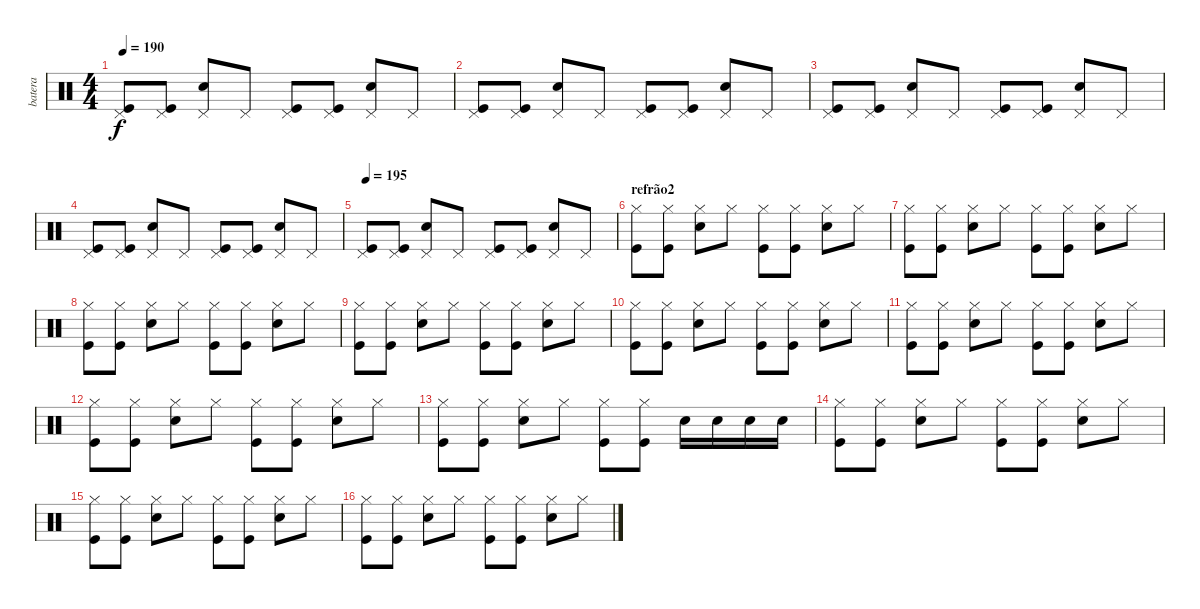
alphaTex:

\track ("batera" "batera") {instrument percussion}
\staff {score}
\articulation defaults
\ts (4 4)
\tempo 190
\clef neutral
\ks c
("Pedal Hi-Hat (hit)" "Kick (hit)").8{dy f} ("Pedal Hi-Hat (hit)" "Kick (hit)").8 ("Pedal Hi-Hat (hit)" "Snare (hit) 2").8 "Pedal Hi-Hat (hit)".8 ("Pedal Hi-Hat (hit)" "Kick (hit)").8 ("Pedal Hi-Hat (hit)" "Kick (hit)").8 ("Pedal Hi-Hat (hit)" "Snare (hit) 2").8 "Pedal Hi-Hat (hit)".8 |
("Pedal Hi-Hat (hit)" "Kick (hit)").8 ("Pedal Hi-Hat (hit)" "Kick (hit)").8 ("Pedal Hi-Hat (hit)" "Snare (hit) 2").8 "Pedal Hi-Hat (hit)".8 ("Pedal Hi-Hat (hit)" "Kick (hit)").8 ("Pedal Hi-Hat (hit)" "Kick (hit)").8 ("Pedal Hi-Hat (hit)" "Snare (hit) 2").8 "Pedal Hi-Hat (hit)".8 |
("Pedal Hi-Hat (hit)" "Kick (hit)").8 ("Pedal Hi-Hat (hit)" "Kick (hit)").8 ("Pedal Hi-Hat (hit)" "Snare (hit) 2").8 "Pedal Hi-Hat (hit)".8 ("Pedal Hi-Hat (hit)" "Kick (hit)").8 ("Pedal Hi-Hat (hit)" "Kick (hit)").8 ("Pedal Hi-Hat (hit)" "Snare (hit) 2").8 "Pedal Hi-Hat (hit)".8 |
("Pedal Hi-Hat (hit)" "Kick (hit)").8 ("Pedal Hi-Hat (hit)" "Kick (hit)").8 ("Pedal Hi-Hat (hit)" "Snare (hit) 2").8 "Pedal Hi-Hat (hit)".8 ("Pedal Hi-Hat (hit)" "Kick (hit)").8 ("Pedal Hi-Hat (hit)" "Kick (hit)").8 ("Pedal Hi-Hat (hit)" "Snare (hit) 2").8 "Pedal Hi-Hat (hit)".8 |
\tempo 195
("Pedal Hi-Hat (hit)" "Kick (hit)").8 ("Pedal Hi-Hat (hit)" "Kick (hit)").8 ("Pedal Hi-Hat (hit)" "Snare (hit) 2").8 "Pedal Hi-Hat (hit)".8 ("Pedal Hi-Hat (hit)" "Kick (hit)").8 ("Pedal Hi-Hat (hit)" "Kick (hit)").8 ("Pedal Hi-Hat (hit)" "Snare (hit) 2").8 "Pedal Hi-Hat (hit)".8 |
\section ("" "refrão2")
("Hi-Hat (closed)" "Kick (hit)").8 ("Hi-Hat (closed)" "Kick (hit)").8 ("Hi-Hat (closed)" "Snare (hit) 2").8 "Hi-Hat (closed)".8 ("Hi-Hat (closed)" "Kick (hit)").8 ("Hi-Hat (closed)" "Kick (hit)").8 ("Hi-Hat (closed)" "Snare (hit) 2").8 "Hi-Hat (closed)".8 |
("Hi-Hat (closed)" "Kick (hit)").8 ("Hi-Hat (closed)" "Kick (hit)").8 ("Hi-Hat (closed)" "Snare (hit) 2").8 "Hi-Hat (closed)".8 ("Hi-Hat (closed)" "Kick (hit)").8 ("Hi-Hat (closed)" "Kick (hit)").8 ("Hi-Hat (closed)" "Snare (hit) 2").8 "Hi-Hat (closed)".8 |
("Hi-Hat (closed)" "Kick (hit)").8 ("Hi-Hat (closed)" "Kick (hit)").8 ("Hi-Hat (closed)" "Snare (hit) 2").8 "Hi-Hat (closed)".8 ("Hi-Hat (closed)" "Kick (hit)").8 ("Hi-Hat (closed)" "Kick (hit)").8 ("Hi-Hat (closed)" "Snare (hit) 2").8 "Hi-Hat (closed)".8 |
("Hi-Hat (closed)" "Kick (hit)").8 ("Hi-Hat (closed)" "Kick (hit)").8 ("Hi-Hat (closed)" "Snare (hit) 2").8 "Hi-Hat (closed)".8 ("Hi-Hat (closed)" "Kick (hit)").8 ("Hi-Hat (closed)" "Kick (hit)").8 ("Hi-Hat (closed)" "Snare (hit) 2").8 "Hi-Hat (closed)".8 |
("Hi-Hat (closed)" "Kick (hit)").8 ("Hi-Hat (closed)" "Kick (hit)").8 ("Hi-Hat (closed)" "Snare (hit) 2").8 "Hi-Hat (closed)".8 ("Hi-Hat (closed)" "Kick (hit)").8 ("Hi-Hat (closed)" "Kick (hit)").8 ("Hi-Hat (closed)" "Snare (hit) 2").8 "Hi-Hat (closed)".8 |
("Hi-Hat (closed)" "Kick (hit)").8 ("Hi-Hat (closed)" "Kick (hit)").8 ("Hi-Hat (closed)" "Snare (hit) 2").8 "Hi-Hat (closed)".8 ("Hi-Hat (closed)" "Kick (hit)").8 ("Hi-Hat (closed)" "Kick (hit)").8 ("Hi-Hat (closed)" "Snare (hit) 2").8 "Hi-Hat (closed)".8 |
("Hi-Hat (closed)" "Kick (hit)").8 ("Hi-Hat (closed)" "Kick (hit)").8 ("Hi-Hat (closed)" "Snare (hit) 2").8 "Hi-Hat (closed)".8 ("Hi-Hat (closed)" "Kick (hit)").8 ("Hi-Hat (closed)" "Kick (hit)").8 ("Hi-Hat (closed)" "Snare (hit) 2").8 "Hi-Hat (closed)".8 |
("Hi-Hat (closed)" "Kick (hit)").8 ("Hi-Hat (closed)" "Kick (hit)").8 ("Hi-Hat (closed)" "Snare (hit) 2").8 "Hi-Hat (closed)".8 ("Hi-Hat (closed)" "Kick (hit)").8 ("Hi-Hat (closed)" "Kick (hit)").8 "Snare (hit) 2".16 "Snare (hit) 2".16 "Snare (hit) 2".16 "Snare (hit) 2".16 |
("Hi-Hat (closed)" "Kick (hit)").8 ("Hi-Hat (closed)" "Kick (hit)").8 ("Hi-Hat (closed)" "Snare (hit) 2").8 "Hi-Hat (closed)".8 ("Hi-Hat (closed)" "Kick (hit)").8 ("Hi-Hat (closed)" "Kick (hit)").8 ("Hi-Hat (closed)" "Snare (hit) 2").8 "Hi-Hat (closed)".8 |
("Hi-Hat (closed)" "Kick (hit)").8 ("Hi-Hat (closed)" "Kick (hit)").8 ("Hi-Hat (closed)" "Snare (hit) 2").8 "Hi-Hat (closed)".8 ("Hi-Hat (closed)" "Kick (hit)").8 ("Hi-Hat (closed)" "Kick (hit)").8 ("Hi-Hat (closed)" "Snare (hit) 2").8 "Hi-Hat (closed)".8 |
("Hi-Hat (closed)" "Kick (hit)").8 ("Hi-Hat (closed)" "Kick (hit)").8 ("Hi-Hat (closed)" "Snare (hit) 2").8 "Hi-Hat (closed)".8 ("Hi-Hat (closed)" "Kick (hit)").8 ("Hi-Hat (closed)" "Kick (hit)").8 ("Hi-Hat (closed)" "Snare (hit) 2").8 "Hi-Hat (closed)".8
